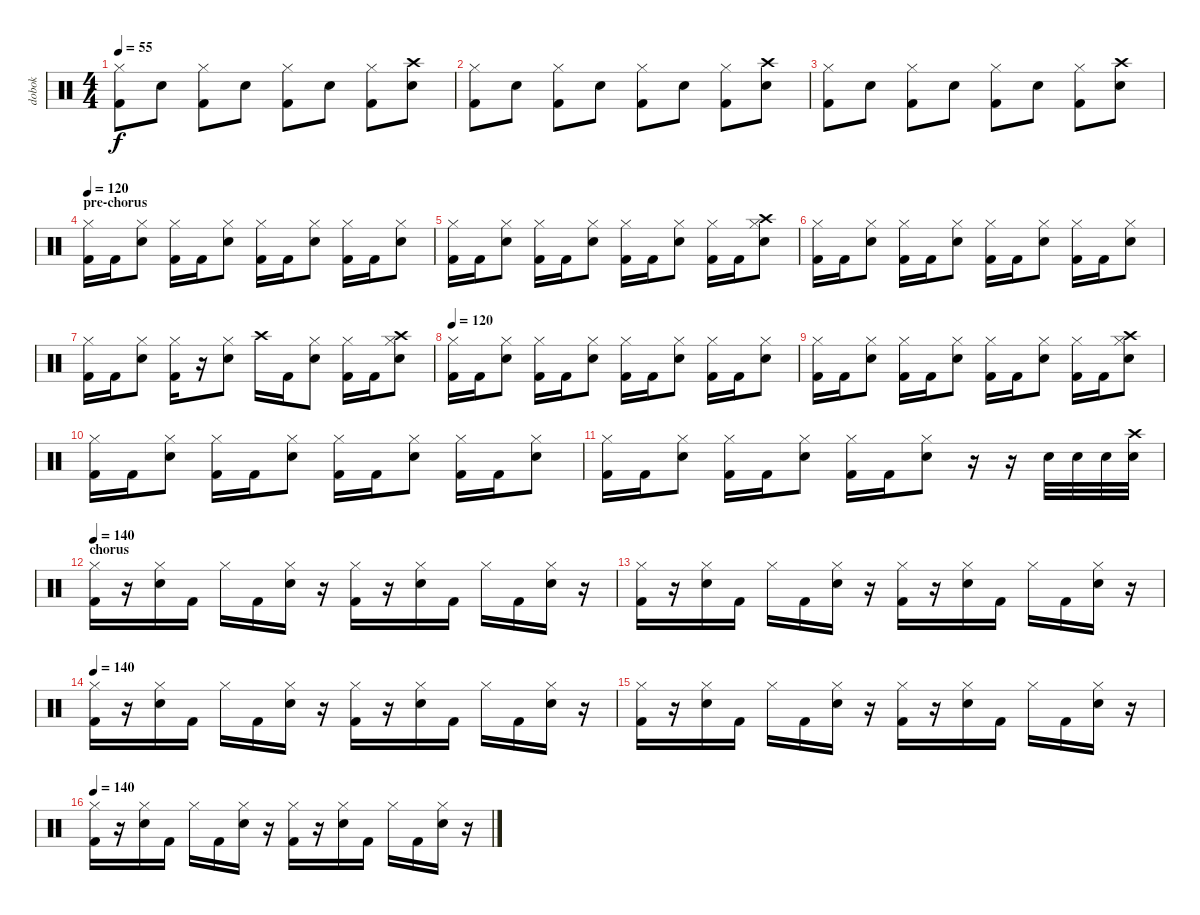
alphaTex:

\track ("dobok" "dobok") {instrument percussion}
\staff {score}
\articulation defaults
\ts (4 4)
\tempo 55
\clef neutral
\ks c
("Hi-Hat (closed)" "Kick (hit) 2").8{dy f} "Snare (hit) 2".8 ("Hi-Hat (closed)" "Kick (hit) 2").8 "Snare (hit) 2".8 ("Hi-Hat (closed)" "Kick (hit) 2").8 "Snare (hit) 2".8 ("Hi-Hat (closed)" "Kick (hit) 2").8 ("Snare (hit) 2" "Crash high (hit)").8 |
("Hi-Hat (closed)" "Kick (hit) 2").8 "Snare (hit) 2".8 ("Hi-Hat (closed)" "Kick (hit) 2").8 "Snare (hit) 2".8 ("Hi-Hat (closed)" "Kick (hit) 2").8 "Snare (hit) 2".8 ("Hi-Hat (closed)" "Kick (hit) 2").8 ("Snare (hit) 2" "Crash high (hit)").8 |
("Hi-Hat (closed)" "Kick (hit) 2").8 "Snare (hit) 2".8 ("Hi-Hat (closed)" "Kick (hit) 2").8 "Snare (hit) 2".8 ("Hi-Hat (closed)" "Kick (hit) 2").8 "Snare (hit) 2".8 ("Hi-Hat (closed)" "Kick (hit) 2").8 ("Snare (hit) 2" "Crash high (hit)").8 |
\section ("" "pre-chorus")
\tempo 120
("Hi-Hat (closed)" "Kick (hit) 2").16 "Kick (hit) 2".16 ("Hi-Hat (closed)" "Snare (hit) 2").8 ("Hi-Hat (closed)" "Kick (hit) 2").16 "Kick (hit) 2".16 ("Hi-Hat (closed)" "Snare (hit) 2").8 ("Hi-Hat (closed)" "Kick (hit) 2").16 "Kick (hit) 2".16 ("Hi-Hat (closed)" "Snare (hit) 2").8 ("Hi-Hat (closed)" "Kick (hit) 2").16 "Kick (hit) 2".16 ("Hi-Hat (closed)" "Snare (hit) 2").8 |
("Hi-Hat (closed)" "Kick (hit) 2").16 "Kick (hit) 2".16 ("Hi-Hat (closed)" "Snare (hit) 2").8 ("Hi-Hat (closed)" "Kick (hit) 2").16 "Kick (hit) 2".16 ("Hi-Hat (closed)" "Snare (hit) 2").8 ("Hi-Hat (closed)" "Kick (hit) 2").16 "Kick (hit) 2".16 ("Hi-Hat (closed)" "Snare (hit) 2").8 ("Hi-Hat (closed)" "Kick (hit) 2").16 "Kick (hit) 2".16 ("Hi-Hat (closed)" "Snare (hit) 2" "Crash high (hit)").8 |
("Hi-Hat (closed)" "Kick (hit) 2").16 "Kick (hit) 2".16 ("Hi-Hat (closed)" "Snare (hit) 2").8 ("Hi-Hat (closed)" "Kick (hit) 2").16 "Kick (hit) 2".16 ("Hi-Hat (closed)" "Snare (hit) 2").8 ("Hi-Hat (closed)" "Kick (hit) 2").16 "Kick (hit) 2".16 ("Hi-Hat (closed)" "Snare (hit) 2").8 ("Hi-Hat (closed)" "Kick (hit) 2").16 "Kick (hit) 2".16 ("Hi-Hat (closed)" "Snare (hit) 2").8 |
("Hi-Hat (closed)" "Kick (hit) 2").16 "Kick (hit) 2".16 ("Hi-Hat (closed)" "Snare (hit) 2").8 ("Hi-Hat (closed)" "Kick (hit) 2").16 r.16 ("Hi-Hat (closed)" "Snare (hit) 2").8 "Crash high (hit)".16 "Kick (hit) 2".16 ("Hi-Hat (closed)" "Snare (hit) 2").8 ("Hi-Hat (closed)" "Kick (hit) 2").16 "Kick (hit) 2".16 ("Hi-Hat (closed)" "Snare (hit) 2" "Crash high (hit)").8 |
\tempo 120
("Hi-Hat (closed)" "Kick (hit) 2").16 "Kick (hit) 2".16 ("Hi-Hat (closed)" "Snare (hit) 2").8 ("Hi-Hat (closed)" "Kick (hit) 2").16 "Kick (hit) 2".16 ("Hi-Hat (closed)" "Snare (hit) 2").8 ("Hi-Hat (closed)" "Kick (hit) 2").16 "Kick (hit) 2".16 ("Hi-Hat (closed)" "Snare (hit) 2").8 ("Hi-Hat (closed)" "Kick (hit) 2").16 "Kick (hit) 2".16 ("Hi-Hat (closed)" "Snare (hit) 2").8 |
("Hi-Hat (closed)" "Kick (hit) 2").16 "Kick (hit) 2".16 ("Hi-Hat (closed)" "Snare (hit) 2").8 ("Hi-Hat (closed)" "Kick (hit) 2").16 "Kick (hit) 2".16 ("Hi-Hat (closed)" "Snare (hit) 2").8 ("Hi-Hat (closed)" "Kick (hit) 2").16 "Kick (hit) 2".16 ("Hi-Hat (closed)" "Snare (hit) 2").8 ("Hi-Hat (closed)" "Kick (hit) 2").16 "Kick (hit) 2".16 ("Hi-Hat (closed)" "Snare (hit) 2" "Crash high (hit)").8 |
("Hi-Hat (closed)" "Kick (hit) 2").16 "Kick (hit) 2".16 ("Hi-Hat (closed)" "Snare (hit) 2").8 ("Hi-Hat (closed)" "Kick (hit) 2").16 "Kick (hit) 2".16 ("Hi-Hat (closed)" "Snare (hit) 2").8 ("Hi-Hat (closed)" "Kick (hit) 2").16 "Kick (hit) 2".16 ("Hi-Hat (closed)" "Snare (hit) 2").8 ("Hi-Hat (closed)" "Kick (hit) 2").16 "Kick (hit) 2".16 ("Hi-Hat (closed)" "Snare (hit) 2").8 |
("Hi-Hat (closed)" "Kick (hit) 2").16 "Kick (hit) 2".16 ("Hi-Hat (closed)" "Snare (hit) 2").8 ("Hi-Hat (closed)" "Kick (hit) 2").16 "Kick (hit) 2".16 ("Hi-Hat (closed)" "Snare (hit) 2").8 ("Hi-Hat (closed)" "Kick (hit) 2").16 "Kick (hit) 2".16 ("Hi-Hat (closed)" "Snare (hit) 2").8 r.16 r.16 "Snare (hit) 2".32 "Snare (hit) 2".32 "Snare (hit) 2".32 ("Snare (hit) 2" "Crash high (hit)").32 |
\section ("" "chorus")
\tempo 140
("Hi-Hat (closed)" "Kick (hit) 2").16 r.16 ("Hi-Hat (closed)" "Snare (hit) 2").16 "Kick (hit) 2".16 "Hi-Hat (closed)".16 "Kick (hit) 2".16 ("Hi-Hat (closed)" "Snare (hit) 2").16 r.16 ("Hi-Hat (closed)" "Kick (hit) 2").16 r.16 ("Hi-Hat (closed)" "Snare (hit) 2").16 "Kick (hit) 2".16 "Hi-Hat (closed)".16 "Kick (hit) 2".16 ("Hi-Hat (closed)" "Snare (hit) 2").16 r.16 |
("Hi-Hat (closed)" "Kick (hit) 2").16 r.16 ("Hi-Hat (closed)" "Snare (hit) 2").16 "Kick (hit) 2".16 "Hi-Hat (closed)".16 "Kick (hit) 2".16 ("Hi-Hat (closed)" "Snare (hit) 2").16 r.16 ("Hi-Hat (closed)" "Kick (hit) 2").16 r.16 ("Hi-Hat (closed)" "Snare (hit) 2").16 "Kick (hit) 2".16 "Hi-Hat (closed)".16 "Kick (hit) 2".16 ("Hi-Hat (closed)" "Snare (hit) 2").16 r.16 |
\tempo 140
("Hi-Hat (closed)" "Kick (hit) 2").16 r.16 ("Hi-Hat (closed)" "Snare (hit) 2").16 "Kick (hit) 2".16 "Hi-Hat (closed)".16 "Kick (hit) 2".16 ("Hi-Hat (closed)" "Snare (hit) 2").16 r.16 ("Hi-Hat (closed)" "Kick (hit) 2").16 r.16 ("Hi-Hat (closed)" "Snare (hit) 2").16 "Kick (hit) 2".16 "Hi-Hat (closed)".16 "Kick (hit) 2".16 ("Hi-Hat (closed)" "Snare (hit) 2").16 r.16 |
("Hi-Hat (closed)" "Kick (hit) 2").16 r.16 ("Hi-Hat (closed)" "Snare (hit) 2").16 "Kick (hit) 2".16 "Hi-Hat (closed)".16 "Kick (hit) 2".16 ("Hi-Hat (closed)" "Snare (hit) 2").16 r.16 ("Hi-Hat (closed)" "Kick (hit) 2").16 r.16 ("Hi-Hat (closed)" "Snare (hit) 2").16 "Kick (hit) 2".16 "Hi-Hat (closed)".16 "Kick (hit) 2".16 ("Hi-Hat (closed)" "Snare (hit) 2").16 r.16 |
\tempo 140
("Hi-Hat (closed)" "Kick (hit) 2").16 r.16 ("Hi-Hat (closed)" "Snare (hit) 2").16 "Kick (hit) 2".16 "Hi-Hat (closed)".16 "Kick (hit) 2".16 ("Hi-Hat (closed)" "Snare (hit) 2").16 r.16 ("Hi-Hat (closed)" "Kick (hit) 2").16 r.16 ("Hi-Hat (closed)" "Snare (hit) 2").16 "Kick (hit) 2".16 "Hi-Hat (closed)".16 "Kick (hit) 2".16 ("Hi-Hat (closed)" "Snare (hit) 2").16 r.16
